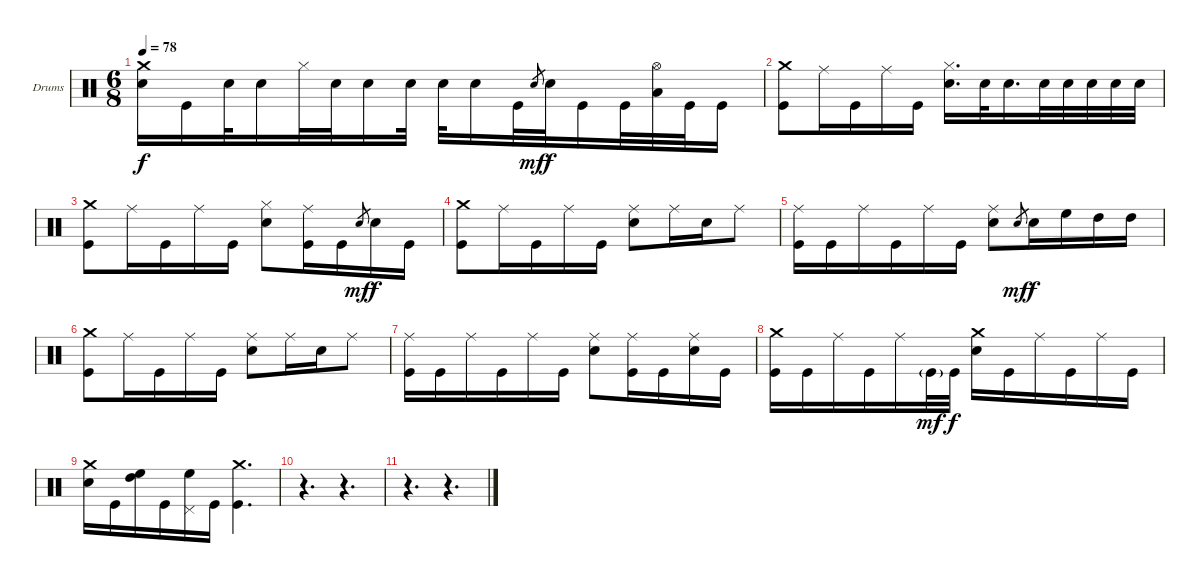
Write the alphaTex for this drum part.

\defaultSystemsLayout 4
\bracketExtendMode groupsimilarinstruments
\firstSystemTrackNameOrientation horizontal
\otherSystemsTrackNameOrientation horizontal
\track ("Drums" "Drums") {instrument percussion}
\staff {score}
\articulation defaults
\ts (6 8)
\tempo 78
\clef neutral
\scale
0.333333
\ks c
("Crash medium (hit)" "Snare (hit) 2").16{dy f} "Kick (hit)".16 "Snare (hit) 2".32 "Snare (hit) 2".16 "Hi-Hat (closed)".32 "Snare (hit) 2".32 "Snare (hit) 2".16 "Snare (hit) 2".32 "Snare (hit) 2".32 "Snare (hit) 2".16 "Kick (hit)".32 "Snare (hit) 2".8{gr dy mf} "Snare (hit) 2".32{dy f} "Kick (hit)".16 "Kick (hit)".32 ("Hi-Hat (open)" "Low Tom (hit)").32 "Kick (hit)".32 "Kick (hit)".16 |
\scale
0.333333 ("Crash medium (hit)" "Kick (hit)").8 "Ride (middle)".16 "Kick (hit)".16 "Ride (middle)".16 "Kick (hit)".16 ("Hi-Hat (closed)" "Snare (hit) 2").16{d} "Snare (hit) 2".32 "Snare (hit) 2".16{d} "Snare (hit) 2".32 "Snare (hit) 2".32 "Snare (hit) 2".32 "Snare (hit) 2".32 "Snare (hit) 2".32 |
\scale
0.333333 ("Crash medium (hit)" "Kick (hit)").8 "Ride (middle)".16 "Kick (hit)".16 "Ride (middle)".16 "Kick (hit)".16 ("Hi-Hat (closed)" "Snare (hit) 2").8 ("Ride (middle)" "Kick (hit)").16 "Kick (hit)".16 "Snare (hit) 2".8{gr dy mf} "Snare (hit) 2".16{dy f} "Kick (hit)".16 |
\scale
0.333333 ("Crash medium (hit)" "Kick (hit)").8 "Ride (middle)".16 "Kick (hit)".16 "Ride (middle)".16 "Kick (hit)".16 ("Ride (middle)" "Snare (hit) 2").8 "Ride (middle)".16 "Snare (hit) 2".16 "Ride (middle)".8 |
\scale
0.333333 ("Ride (middle)" "Kick (hit)").16 "Kick (hit)".16 "Ride (middle)".16 "Kick (hit)".16 "Ride (middle)".16 "Kick (hit)".16 ("Ride (middle)" "Snare (hit) 2").8 "Snare (hit) 2".8{gr dy mf} "Snare (hit) 2".16{dy f} "High Floor Tom (hit)".16 "High Tom (hit)".16 "High Tom (hit)".16 |
\scale
0.333333 ("Crash medium (hit)" "Kick (hit)").8 "Ride (middle)".16 "Kick (hit)".16 "Ride (middle)".16 "Kick (hit)".16 ("Ride (middle)" "Snare (hit) 2").8 "Ride (middle)".16 "Snare (hit) 2".16 "Ride (middle)".8 |
\scale
0.333333 ("Ride (middle)" "Kick (hit)").16 "Kick (hit)".16 "Ride (middle)".16 "Kick (hit)".16 "Ride (middle)".16 "Kick (hit)".16 ("Ride (middle)" "Snare (hit) 2").8 ("Ride (middle)" "Kick (hit)").16 "Kick (hit)".16 ("Ride (middle)" "Snare (hit) 2").16 "Kick (hit)".16 |
\scale
0.333333 ("Crash medium (hit)" "Kick (hit)").16 "Kick (hit)".16 "Ride (middle)".16 "Kick (hit)".16 "Ride (middle)".16 "Kick (hit)"{g}.32{dy mf} "Kick (hit)".32{dy f} ("Crash medium (hit)" "Snare (hit) 2").16 "Kick (hit)".16 "Ride (middle)".16 "Kick (hit)".16 "Ride (middle)".16 "Kick (hit)".16 |
("Crash medium (hit)" "Snare (hit) 2").16 "Kick (hit)".16 ("High Tom (hit)" "High Floor Tom (hit)").16 "Kick (hit)".16 ("Pedal Hi-Hat (hit)" "High Floor Tom (hit)").16 "Kick (hit)".16 ("Crash medium (hit)" "Kick (hit)").4{d} |
r.4{d} r.4{d} |
r.4{d} r.4{d}
